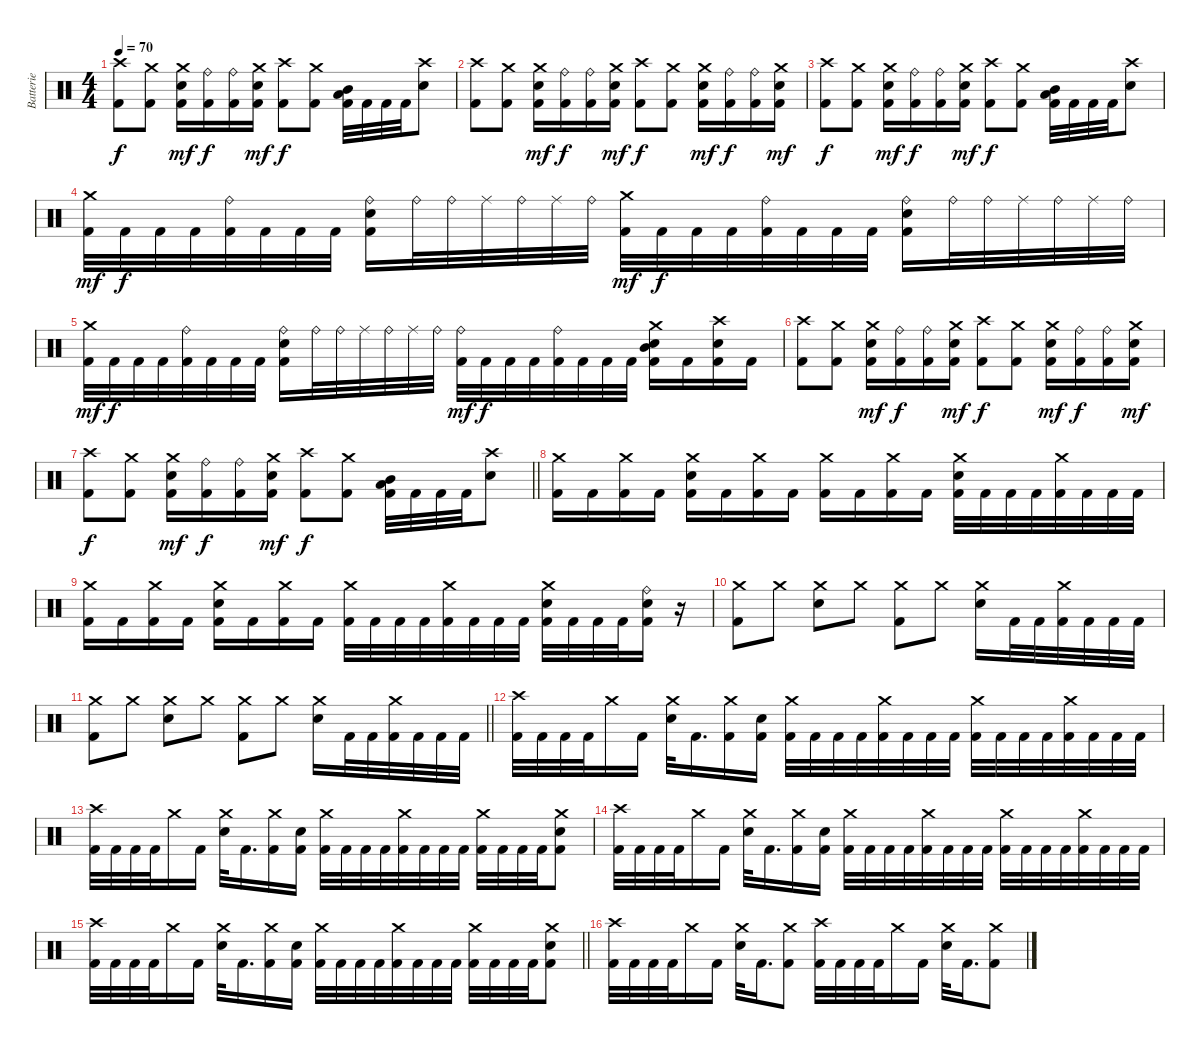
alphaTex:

\track ("Batterie" "Batterie") {instrument percussion}
\staff {score}
\articulation defaults
\ts (4 4)
\tempo 70
\clef neutral
\ks c
("Crash high (hit)" "Kick (hit) 2").8{dy f} ("Crash medium (hit)" "Kick (hit) 2").8 ("Crash medium (hit)" "Snare (hit) 2" "Kick (hit) 2").16{dy mf} ("Ride (bell)" "Kick (hit) 2").16{dy f} ("Ride (bell)" "Kick (hit) 2").16 ("Crash medium (hit)" "Snare (hit) 2" "Kick (hit) 2").16{dy mf} ("Crash high (hit)" "Kick (hit) 2").8{dy f} ("Crash medium (hit)" "Kick (hit) 2").8 ("Mid Tom (hit)" "Low Tom (hit)" "Kick (hit) 2").32 "Kick (hit) 2".32 "Kick (hit) 2".32 "Kick (hit) 2".32 ("Crash high (hit)" "Snare (hit) 2").8 |
("Crash high (hit)" "Kick (hit) 2").8 ("Crash medium (hit)" "Kick (hit) 2").8 ("Crash medium (hit)" "Snare (hit) 2" "Kick (hit) 2").16{dy mf} ("Ride (bell)" "Kick (hit) 2").16{dy f} ("Ride (bell)" "Kick (hit) 2").16 ("Crash medium (hit)" "Snare (hit) 2" "Kick (hit) 2").16{dy mf} ("Crash high (hit)" "Kick (hit) 2").8{dy f} ("Crash medium (hit)" "Kick (hit) 2").8 ("Crash medium (hit)" "Snare (hit) 2" "Kick (hit) 2").16{dy mf} ("Ride (bell)" "Kick (hit) 2").16{dy f} ("Ride (bell)" "Kick (hit) 2").16 ("Crash medium (hit)" "Snare (hit) 2" "Kick (hit) 2").16{dy mf} |
("Crash high (hit)" "Kick (hit) 2").8{dy f} ("Crash medium (hit)" "Kick (hit) 2").8 ("Crash medium (hit)" "Snare (hit) 2" "Kick (hit) 2").16{dy mf} ("Ride (bell)" "Kick (hit) 2").16{dy f} ("Ride (bell)" "Kick (hit) 2").16 ("Crash medium (hit)" "Snare (hit) 2" "Kick (hit) 2").16{dy mf} ("Crash high (hit)" "Kick (hit) 2").8{dy f} ("Crash medium (hit)" "Kick (hit) 2").8 ("Mid Tom (hit)" "Low Tom (hit)" "Kick (hit) 2").32 "Kick (hit) 2".32 "Kick (hit) 2".32 "Kick (hit) 2".32 ("Crash high (hit)" "Snare (hit) 2").8 |
("Crash medium (hit)" "Kick (hit) 2").32{dy mf} "Kick (hit) 2".32{dy f} "Kick (hit) 2".32 "Kick (hit) 2".32 ("Ride (bell)" "Kick (hit) 2").32 "Kick (hit) 2".32 "Kick (hit) 2".32 "Kick (hit) 2".32 ("Ride (bell)" "Snare (hit) 2" "Kick (hit) 2").16 "Ride (bell)".32 "Ride (bell)".32 "Ride (middle)".32 "Ride (bell)".32 "Ride (middle)".32 "Ride (bell)".32 ("Crash medium (hit)" "Kick (hit) 2").32{dy mf} "Kick (hit) 2".32{dy f} "Kick (hit) 2".32 "Kick (hit) 2".32 ("Ride (bell)" "Kick (hit) 2").32 "Kick (hit) 2".32 "Kick (hit) 2".32 "Kick (hit) 2".32 ("Ride (bell)" "Snare (hit) 2" "Kick (hit) 2").16 "Ride (bell)".32 "Ride (bell)".32 "Ride (middle)".32 "Ride (bell)".32 "Ride (middle)".32 "Ride (bell)".32 |
("Crash medium (hit)" "Kick (hit) 2").32{dy mf} "Kick (hit) 2".32{dy f} "Kick (hit) 2".32 "Kick (hit) 2".32 ("Ride (bell)" "Kick (hit) 2").32 "Kick (hit) 2".32 "Kick (hit) 2".32 "Kick (hit) 2".32 ("Ride (bell)" "Snare (hit) 2" "Kick (hit) 2").16 "Ride (bell)".32 "Ride (bell)".32 "Ride (middle)".32 "Ride (bell)".32 "Ride (middle)".32 "Ride (bell)".32 ("Ride (bell)" "Kick (hit) 2").32{dy mf} "Kick (hit) 2".32{dy f} "Kick (hit) 2".32 "Kick (hit) 2".32 ("Ride (bell)" "Kick (hit) 2").32 "Kick (hit) 2".32 "Kick (hit) 2".32 "Kick (hit) 2".32 ("Crash medium (hit)" "Mid Tom (hit)" "Snare (hit) 2" "Kick (hit) 2").16 "Kick (hit) 2".16 ("Crash high (hit)" "Snare (hit) 2" "Kick (hit) 2").16 "Kick (hit) 2".16 |
("Crash high (hit)" "Kick (hit) 2").8 ("Crash medium (hit)" "Kick (hit) 2").8 ("Crash medium (hit)" "Snare (hit) 2" "Kick (hit) 2").16{dy mf} ("Ride (bell)" "Kick (hit) 2").16{dy f} ("Ride (bell)" "Kick (hit) 2").16 ("Crash medium (hit)" "Snare (hit) 2" "Kick (hit) 2").16{dy mf} ("Crash high (hit)" "Kick (hit) 2").8{dy f} ("Crash medium (hit)" "Kick (hit) 2").8 ("Crash medium (hit)" "Snare (hit) 2" "Kick (hit) 2").16{dy mf} ("Ride (bell)" "Kick (hit) 2").16{dy f} ("Ride (bell)" "Kick (hit) 2").16 ("Crash medium (hit)" "Snare (hit) 2" "Kick (hit) 2").16{dy mf} |
\barLineRight lightlight
("Crash high (hit)" "Kick (hit) 2").8{dy f} ("Crash medium (hit)" "Kick (hit) 2").8 ("Crash medium (hit)" "Snare (hit) 2" "Kick (hit) 2").16{dy mf} ("Ride (bell)" "Kick (hit) 2").16{dy f} ("Ride (bell)" "Kick (hit) 2").16 ("Crash medium (hit)" "Snare (hit) 2" "Kick (hit) 2").16{dy mf} ("Crash high (hit)" "Kick (hit) 2").8{dy f} ("Crash medium (hit)" "Kick (hit) 2").8 ("Mid Tom (hit)" "Low Tom (hit)" "Kick (hit) 2").32 "Kick (hit) 2".32 "Kick (hit) 2".32 "Kick (hit) 2".32 ("Crash high (hit)" "Snare (hit) 2").8 |
\section ("" "")
("Crash medium (hit)" "Kick (hit) 2").16 "Kick (hit) 2".16 ("Crash medium (hit)" "Kick (hit) 2").16 "Kick (hit) 2".16 ("Crash medium (hit)" "Snare (hit) 2" "Kick (hit) 2").16 "Kick (hit) 2".16 ("Crash medium (hit)" "Kick (hit) 2").16 "Kick (hit) 2".16 ("Crash medium (hit)" "Kick (hit) 2").16 "Kick (hit) 2".16 ("Crash medium (hit)" "Kick (hit) 2").16 "Kick (hit) 2".16 ("Crash medium (hit)" "Snare (hit) 2" "Kick (hit) 2").32 "Kick (hit) 2".32 "Kick (hit) 2".32 "Kick (hit) 2".32 ("Crash medium (hit)" "Kick (hit) 2").32 "Kick (hit) 2".32 "Kick (hit) 2".32 "Kick (hit) 2".32 |
("Crash medium (hit)" "Kick (hit) 2").16 "Kick (hit) 2".16 ("Crash medium (hit)" "Kick (hit) 2").16 "Kick (hit) 2".16 ("Crash medium (hit)" "Snare (hit) 2" "Kick (hit) 2").16 "Kick (hit) 2".16 ("Crash medium (hit)" "Kick (hit) 2").16 "Kick (hit) 2".16 ("Crash medium (hit)" "Kick (hit) 2").32 "Kick (hit) 2".32 "Kick (hit) 2".32 "Kick (hit) 2".32 ("Crash medium (hit)" "Kick (hit) 2").32 "Kick (hit) 2".32 "Kick (hit) 2".32 "Kick (hit) 2".32 ("Crash medium (hit)" "Snare (hit) 2" "Kick (hit) 2").32 "Kick (hit) 2".32 "Kick (hit) 2".32 "Kick (hit) 2".32 ("Ride (bell)" "Snare (hit) 2" "Kick (hit) 2").16 r.16 |
("Crash medium (hit)" "Kick (hit) 2").8 "Crash medium (hit)".8 ("Crash medium (hit)" "Snare (hit) 2").8 "Crash medium (hit)".8 ("Crash medium (hit)" "Kick (hit) 2").8 "Crash medium (hit)".8 ("Crash medium (hit)" "Snare (hit) 2").16 "Kick (hit) 2".32 "Kick (hit) 2".32 ("Crash medium (hit)" "Kick (hit) 2").32 "Kick (hit) 2".32 "Kick (hit) 2".32 "Kick (hit) 2".32 |
\barLineRight lightlight
("Crash medium (hit)" "Kick (hit) 2").8 "Crash medium (hit)".8 ("Crash medium (hit)" "Snare (hit) 2").8 "Crash medium (hit)".8 ("Crash medium (hit)" "Kick (hit) 2").8 "Crash medium (hit)".8 ("Crash medium (hit)" "Snare (hit) 2").16 "Kick (hit) 2".32 "Kick (hit) 2".32 ("Crash medium (hit)" "Kick (hit) 2").32 "Kick (hit) 2".32 "Kick (hit) 2".32 "Kick (hit) 2".32 |
\section ("" "")
("Crash high (hit)" "Kick (hit) 2").32 "Kick (hit) 2".32 "Kick (hit) 2".32 "Kick (hit) 2".32 "Crash medium (hit)".16 "Kick (hit) 2".16 ("Crash medium (hit)" "Snare (hit) 2").32 "Kick (hit) 2".16{d} ("Crash medium (hit)" "Kick (hit) 2").16 ("Snare (hit) 2" "Kick (hit) 2").16 ("Crash medium (hit)" "Kick (hit) 2").32 "Kick (hit) 2".32 "Kick (hit) 2".32 "Kick (hit) 2".32 ("Crash medium (hit)" "Kick (hit) 2").32 "Kick (hit) 2".32 "Kick (hit) 2".32 "Kick (hit) 2".32 ("Crash medium (hit)" "Kick (hit) 2").32 "Kick (hit) 2".32 "Kick (hit) 2".32 "Kick (hit) 2".32 ("Crash medium (hit)" "Kick (hit) 2").32 "Kick (hit) 2".32 "Kick (hit) 2".32 "Kick (hit) 2".32 |
("Crash high (hit)" "Kick (hit) 2").32 "Kick (hit) 2".32 "Kick (hit) 2".32 "Kick (hit) 2".32 "Crash medium (hit)".16 "Kick (hit) 2".16 ("Crash medium (hit)" "Snare (hit) 2").32 "Kick (hit) 2".16{d} ("Crash medium (hit)" "Kick (hit) 2").16 ("Snare (hit) 2" "Kick (hit) 2").16 ("Crash medium (hit)" "Kick (hit) 2").32 "Kick (hit) 2".32 "Kick (hit) 2".32 "Kick (hit) 2".32 ("Crash medium (hit)" "Kick (hit) 2").32 "Kick (hit) 2".32 "Kick (hit) 2".32 "Kick (hit) 2".32 ("Crash medium (hit)" "Kick (hit) 2").32 "Kick (hit) 2".32 "Kick (hit) 2".32 "Kick (hit) 2".32 ("Crash medium (hit)" "Snare (hit) 2" "Kick (hit) 2").8 |
("Crash high (hit)" "Kick (hit) 2").32 "Kick (hit) 2".32 "Kick (hit) 2".32 "Kick (hit) 2".32 "Crash medium (hit)".16 "Kick (hit) 2".16 ("Crash medium (hit)" "Snare (hit) 2").32 "Kick (hit) 2".16{d} ("Crash medium (hit)" "Kick (hit) 2").16 ("Snare (hit) 2" "Kick (hit) 2").16 ("Crash medium (hit)" "Kick (hit) 2").32 "Kick (hit) 2".32 "Kick (hit) 2".32 "Kick (hit) 2".32 ("Crash medium (hit)" "Kick (hit) 2").32 "Kick (hit) 2".32 "Kick (hit) 2".32 "Kick (hit) 2".32 ("Crash medium (hit)" "Kick (hit) 2").32 "Kick (hit) 2".32 "Kick (hit) 2".32 "Kick (hit) 2".32 ("Crash medium (hit)" "Kick (hit) 2").32 "Kick (hit) 2".32 "Kick (hit) 2".32 "Kick (hit) 2".32 |
\barLineRight lightlight
("Crash high (hit)" "Kick (hit) 2").32 "Kick (hit) 2".32 "Kick (hit) 2".32 "Kick (hit) 2".32 "Crash medium (hit)".16 "Kick (hit) 2".16 ("Crash medium (hit)" "Snare (hit) 2").32 "Kick (hit) 2".16{d} ("Crash medium (hit)" "Kick (hit) 2").16 ("Snare (hit) 2" "Kick (hit) 2").16 ("Crash medium (hit)" "Kick (hit) 2").32 "Kick (hit) 2".32 "Kick (hit) 2".32 "Kick (hit) 2".32 ("Crash medium (hit)" "Kick (hit) 2").32 "Kick (hit) 2".32 "Kick (hit) 2".32 "Kick (hit) 2".32 ("Crash medium (hit)" "Kick (hit) 2").32 "Kick (hit) 2".32 "Kick (hit) 2".32 "Kick (hit) 2".32 ("Crash medium (hit)" "Snare (hit) 2" "Kick (hit) 2").8 |
\section ("" "")
("Crash high (hit)" "Kick (hit) 2").32 "Kick (hit) 2".32 "Kick (hit) 2".32 "Kick (hit) 2".32 "Crash medium (hit)".16 "Kick (hit) 2".16 ("Crash medium (hit)" "Snare (hit) 2").32 "Kick (hit) 2".16{d} ("Crash medium (hit)" "Kick (hit) 2").8 ("Crash high (hit)" "Kick (hit) 2").32 "Kick (hit) 2".32 "Kick (hit) 2".32 "Kick (hit) 2".32 "Crash medium (hit)".16 "Kick (hit) 2".16 ("Crash medium (hit)" "Snare (hit) 2").32 "Kick (hit) 2".16{d} ("Crash medium (hit)" "Kick (hit) 2").8
